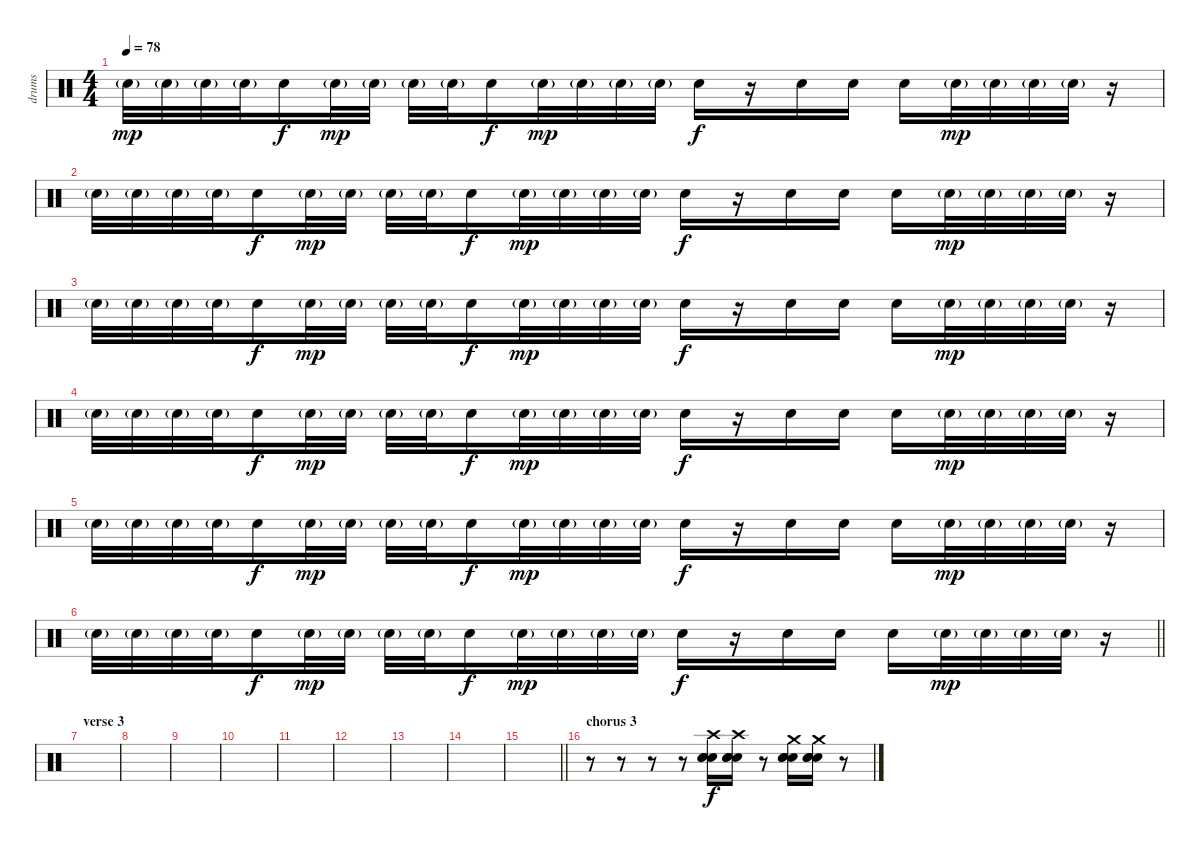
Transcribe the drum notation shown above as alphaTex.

\track ("drums" "drums") {instrument percussion}
\staff {score}
\articulation defaults
\ts (4 4)
\tempo 78
\clef neutral
\ks c "Electric Snare (hit)"{g}.32{dy mp} "Electric Snare (hit)"{g}.32 "Electric Snare (hit)"{g}.32 "Electric Snare (hit)"{g}.32 "Electric Snare (hit)".16{dy f} "Electric Snare (hit)"{g}.32{dy mp} "Electric Snare (hit)"{g}.32 "Electric Snare (hit)"{g}.32 "Electric Snare (hit)"{g}.32 "Electric Snare (hit)".16{dy f} "Electric Snare (hit)"{g}.32{dy mp} "Electric Snare (hit)"{g}.32 "Electric Snare (hit)"{g}.32 "Electric Snare (hit)"{g}.32 "Electric Snare (hit)".16{dy f}
r.16 "Electric Snare (hit)".16 "Electric Snare (hit)".16 "Electric Snare (hit)".16 "Electric Snare (hit)"{g}.32{dy mp} "Electric Snare (hit)"{g}.32 "Electric Snare (hit)"{g}.32 "Electric Snare (hit)"{g}.32 r.16 |
"Electric Snare (hit)"{g}.32 "Electric Snare (hit)"{g}.32 "Electric Snare (hit)"{g}.32 "Electric Snare (hit)"{g}.32 "Electric Snare (hit)".16{dy f} "Electric Snare (hit)"{g}.32{dy mp} "Electric Snare (hit)"{g}.32 "Electric Snare (hit)"{g}.32 "Electric Snare (hit)"{g}.32 "Electric Snare (hit)".16{dy f} "Electric Snare (hit)"{g}.32{dy mp} "Electric Snare (hit)"{g}.32 "Electric Snare (hit)"{g}.32 "Electric Snare (hit)"{g}.32 "Electric Snare (hit)".16{dy f} r.16 "Electric Snare (hit)".16 "Electric Snare (hit)".16 "Electric Snare (hit)".16 "Electric Snare (hit)"{g}.32{dy mp} "Electric Snare (hit)"{g}.32 "Electric Snare (hit)"{g}.32 "Electric Snare (hit)"{g}.32 r.16 |
"Electric Snare (hit)"{g}.32 "Electric Snare (hit)"{g}.32 "Electric Snare (hit)"{g}.32 "Electric Snare (hit)"{g}.32 "Electric Snare (hit)".16{dy f} "Electric Snare (hit)"{g}.32{dy mp} "Electric Snare (hit)"{g}.32 "Electric Snare (hit)"{g}.32 "Electric Snare (hit)"{g}.32 "Electric Snare (hit)".16{dy f} "Electric Snare (hit)"{g}.32{dy mp} "Electric Snare (hit)"{g}.32 "Electric Snare (hit)"{g}.32 "Electric Snare (hit)"{g}.32 "Electric Snare (hit)".16{dy f} r.16 "Electric Snare (hit)".16 "Electric Snare (hit)".16 "Electric Snare (hit)".16 "Electric Snare (hit)"{g}.32{dy mp} "Electric Snare (hit)"{g}.32 "Electric Snare (hit)"{g}.32 "Electric Snare (hit)"{g}.32 r.16 |
"Electric Snare (hit)"{g}.32 "Electric Snare (hit)"{g}.32 "Electric Snare (hit)"{g}.32 "Electric Snare (hit)"{g}.32 "Electric Snare (hit)".16{dy f} "Electric Snare (hit)"{g}.32{dy mp} "Electric Snare (hit)"{g}.32 "Electric Snare (hit)"{g}.32 "Electric Snare (hit)"{g}.32 "Electric Snare (hit)".16{dy f} "Electric Snare (hit)"{g}.32{dy mp} "Electric Snare (hit)"{g}.32 "Electric Snare (hit)"{g}.32 "Electric Snare (hit)"{g}.32 "Electric Snare (hit)".16{dy f} r.16 "Electric Snare (hit)".16 "Electric Snare (hit)".16 "Electric Snare (hit)".16 "Electric Snare (hit)"{g}.32{dy mp} "Electric Snare (hit)"{g}.32 "Electric Snare (hit)"{g}.32 "Electric Snare (hit)"{g}.32 r.16 |
"Electric Snare (hit)"{g}.32 "Electric Snare (hit)"{g}.32 "Electric Snare (hit)"{g}.32 "Electric Snare (hit)"{g}.32 "Electric Snare (hit)".16{dy f} "Electric Snare (hit)"{g}.32{dy mp} "Electric Snare (hit)"{g}.32 "Electric Snare (hit)"{g}.32 "Electric Snare (hit)"{g}.32 "Electric Snare (hit)".16{dy f} "Electric Snare (hit)"{g}.32{dy mp} "Electric Snare (hit)"{g}.32 "Electric Snare (hit)"{g}.32 "Electric Snare (hit)"{g}.32 "Electric Snare (hit)".16{dy f} r.16 "Electric Snare (hit)".16 "Electric Snare (hit)".16 "Electric Snare (hit)".16 "Electric Snare (hit)"{g}.32{dy mp} "Electric Snare (hit)"{g}.32 "Electric Snare (hit)"{g}.32 "Electric Snare (hit)"{g}.32 r.16 |
\barLineRight lightlight "Electric Snare (hit)"{g}.32 "Electric Snare (hit)"{g}.32 "Electric Snare (hit)"{g}.32 "Electric Snare (hit)"{g}.32 "Electric Snare (hit)".16{dy f} "Electric Snare (hit)"{g}.32{dy mp} "Electric Snare (hit)"{g}.32 "Electric Snare (hit)"{g}.32 "Electric Snare (hit)"{g}.32 "Electric Snare (hit)".16{dy f} "Electric Snare (hit)"{g}.32{dy mp} "Electric Snare (hit)"{g}.32 "Electric Snare (hit)"{g}.32 "Electric Snare (hit)"{g}.32 "Electric Snare (hit)".16{dy f}
r.16 "Electric Snare (hit)".16 "Electric Snare (hit)".16 "Electric Snare (hit)".16 "Electric Snare (hit)"{g}.32{dy mp} "Electric Snare (hit)"{g}.32 "Electric Snare (hit)"{g}.32 "Electric Snare (hit)"{g}.32 r.16 |
\section ("" "verse 3")
|
|
|
|
|
|
|
|
\barLineRight lightlight
|
\section ("" "chorus 3")
r.8 r.8 r.8 r.8 ("Electric Snare (hit)" "Electric Snare (hit)" "Electric Snare (hit)" "Crash high (hit)").16{dy f volume 16} ("Electric Snare (hit)" "Electric Snare (hit)" "Electric Snare (hit)" "Crash high (hit)").16 r.8 ("Electric Snare (hit)" "Electric Snare (hit)" "Electric Snare (hit)" "Crash medium (hit)").16 ("Electric Snare (hit)" "Electric Snare (hit)" "Electric Snare (hit)" "Crash medium (hit)").16 r.8
